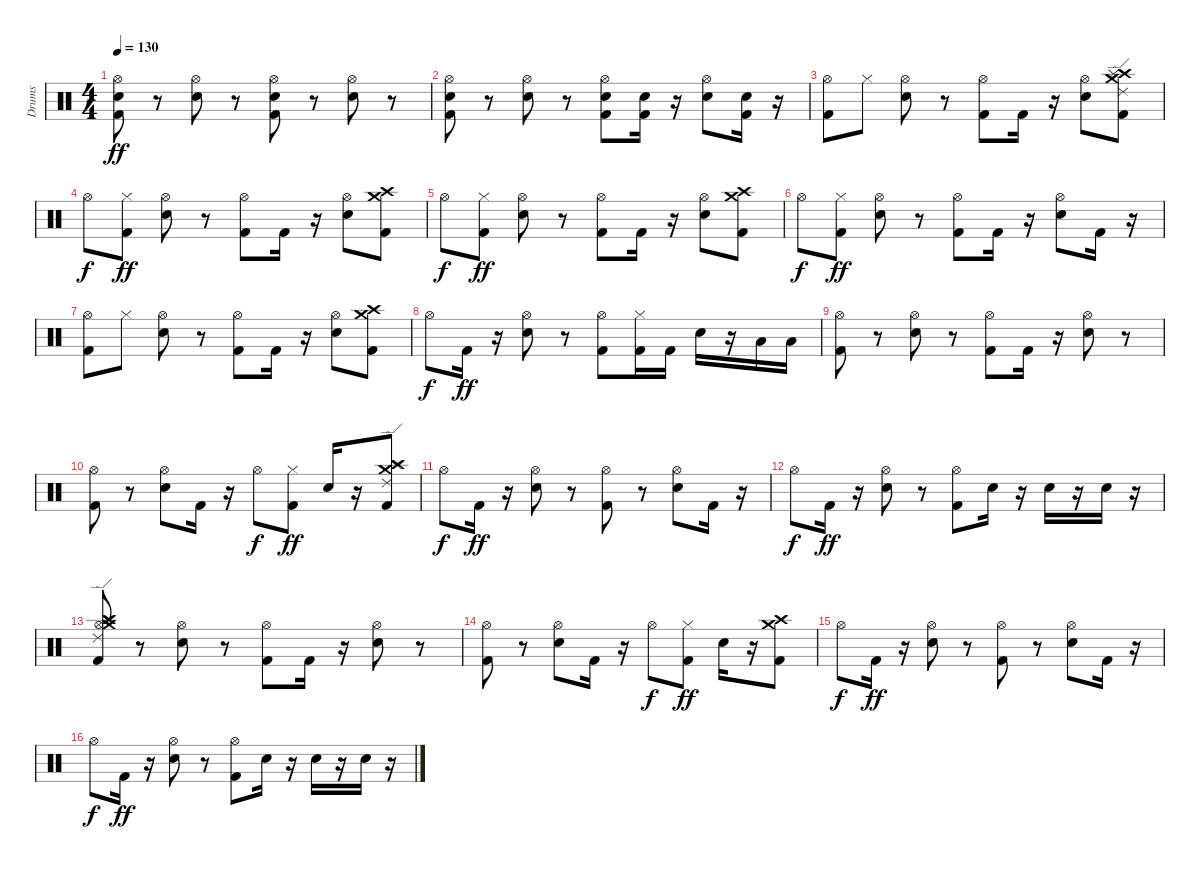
\track ("Drums" "Drums") {instrument percussion}
\staff {score}
\articulation defaults
\ts (4 4)
\tempo 130
\clef neutral
\ks c
("Kick (hit) 2" "Snare (hit) 2" "Hi-Hat (open)").8{dy ff} r.8 ("Snare (hit) 2" "Hi-Hat (open)").8 r.8 ("Kick (hit) 2" "Snare (hit) 2" "Hi-Hat (open)").8 r.8 ("Snare (hit) 2" "Hi-Hat (open)").8 r.8 |
("Kick (hit) 2" "Snare (hit) 2" "Hi-Hat (open)").8 r.8 ("Snare (hit) 2" "Hi-Hat (open)").8 r.8 ("Kick (hit) 2" "Snare (hit) 2" "Hi-Hat (open)").8 ("Kick (hit) 2" "Snare (hit) 2").16 r.16 ("Snare (hit) 2" "Hi-Hat (open)").8 ("Kick (hit) 2" "Snare (hit) 2").16 r.16 |
("Kick (hit) 2" "Hi-Hat (open)").8 "Hi-Hat (closed)".8 ("Snare (hit) 2" "Hi-Hat (open)").8 r.8 ("Kick (hit) 2" "Hi-Hat (open)").8 "Kick (hit) 2".16 r.16 ("Snare (hit) 2" "Hi-Hat (open)").8 ("Kick (hit) 2" "Crash high (hit)" "Splash (hit)" "Crash medium (hit)" "Ride (edge) 2").8 |
"Hi-Hat (open)".8{dy f} ("Kick (hit) 2" "Hi-Hat (closed)").8{dy ff} ("Snare (hit) 2" "Hi-Hat (open)").8 r.8 ("Kick (hit) 2" "Hi-Hat (open)").8 "Kick (hit) 2".16 r.16 ("Snare (hit) 2" "Hi-Hat (open)").8 ("Kick (hit) 2" "Crash high (hit)" "Crash medium (hit)").8 |
"Hi-Hat (open)".8{dy f} ("Kick (hit) 2" "Hi-Hat (closed)").8{dy ff} ("Snare (hit) 2" "Hi-Hat (open)").8 r.8 ("Kick (hit) 2" "Hi-Hat (open)").8 "Kick (hit) 2".16 r.16 ("Snare (hit) 2" "Hi-Hat (open)").8 ("Kick (hit) 2" "Crash high (hit)" "Crash medium (hit)").8 |
"Hi-Hat (open)".8{dy f} ("Kick (hit) 2" "Hi-Hat (closed)").8{dy ff} ("Snare (hit) 2" "Hi-Hat (open)").8 r.8 ("Kick (hit) 2" "Hi-Hat (open)").8 "Kick (hit) 2".16 r.16 ("Snare (hit) 2" "Hi-Hat (open)").8 "Kick (hit) 2".16 r.16 |
("Kick (hit) 2" "Hi-Hat (open)").8 "Hi-Hat (closed)".8 ("Snare (hit) 2" "Hi-Hat (open)").8 r.8 ("Kick (hit) 2" "Hi-Hat (open)").8 "Kick (hit) 2".16 r.16 ("Snare (hit) 2" "Hi-Hat (open)").8 ("Kick (hit) 2" "Crash high (hit)" "Crash medium (hit)").8 |
"Hi-Hat (open)".8{dy f} "Kick (hit) 2".16{dy ff} r.16 ("Snare (hit) 2" "Hi-Hat (open)").8 r.8 ("Kick (hit) 2" "Hi-Hat (open)").8 ("Kick (hit) 2" "Hi-Hat (closed)").16 "Kick (hit) 2".16 "Snare (hit) 2".16 r.16 "Low Floor Tom (hit)".16 "Low Floor Tom (hit)".16 |
("Kick (hit) 2" "Hi-Hat (open)").8 r.8 ("Snare (hit) 2" "Hi-Hat (open)").8 r.8 ("Kick (hit) 2" "Hi-Hat (open)").8 "Kick (hit) 2".16 r.16 ("Snare (hit) 2" "Hi-Hat (open)").8 r.8 |
("Kick (hit) 2" "Hi-Hat (open)").8 r.8 ("Snare (hit) 2" "Hi-Hat (open)").8 "Kick (hit) 2".16 r.16 "Hi-Hat (open)".8{dy f} ("Kick (hit) 2" "Hi-Hat (closed)").8{dy ff} "Snare (hit) 2".16 r.16 ("Kick (hit) 2" "Crash high (hit)" "Splash (hit)" "Crash medium (hit)" "Ride (edge) 2").8 |
"Hi-Hat (open)".8{dy f} "Kick (hit) 2".16{dy ff} r.16 ("Snare (hit) 2" "Hi-Hat (open)").8 r.8 ("Kick (hit) 2" "Hi-Hat (open)").8 r.8 ("Snare (hit) 2" "Hi-Hat (open)").8 "Kick (hit) 2".16 r.16 |
"Hi-Hat (open)".8{dy f} "Kick (hit) 2".16{dy ff} r.16 ("Snare (hit) 2" "Hi-Hat (open)").8 r.8 ("Kick (hit) 2" "Hi-Hat (open)").8 "Snare (hit) 2".16 r.16 "Snare (hit) 2".16 r.16 "Snare (hit) 2".16 r.16 |
("Kick (hit) 2" "Hi-Hat (open)" "Crash high (hit)" "Splash (hit)" "Crash medium (hit)" "Ride (edge) 2").8 r.8 ("Snare (hit) 2" "Hi-Hat (open)").8 r.8 ("Kick (hit) 2" "Hi-Hat (open)").8 "Kick (hit) 2".16 r.16 ("Snare (hit) 2" "Hi-Hat (open)").8 r.8 |
("Kick (hit) 2" "Hi-Hat (open)").8 r.8 ("Snare (hit) 2" "Hi-Hat (open)").8 "Kick (hit) 2".16 r.16 "Hi-Hat (open)".8{dy f} ("Kick (hit) 2" "Hi-Hat (closed)").8{dy ff} "Snare (hit) 2".16 r.16 ("Kick (hit) 2" "Crash high (hit)" "Crash medium (hit)").8 |
"Hi-Hat (open)".8{dy f} "Kick (hit) 2".16{dy ff} r.16 ("Snare (hit) 2" "Hi-Hat (open)").8 r.8 ("Kick (hit) 2" "Hi-Hat (open)").8 r.8 ("Snare (hit) 2" "Hi-Hat (open)").8 "Kick (hit) 2".16 r.16 |
"Hi-Hat (open)".8{dy f} "Kick (hit) 2".16{dy ff} r.16 ("Snare (hit) 2" "Hi-Hat (open)").8 r.8 ("Kick (hit) 2" "Hi-Hat (open)").8 "Snare (hit) 2".16 r.16 "Snare (hit) 2".16 r.16 "Snare (hit) 2".16 r.16
